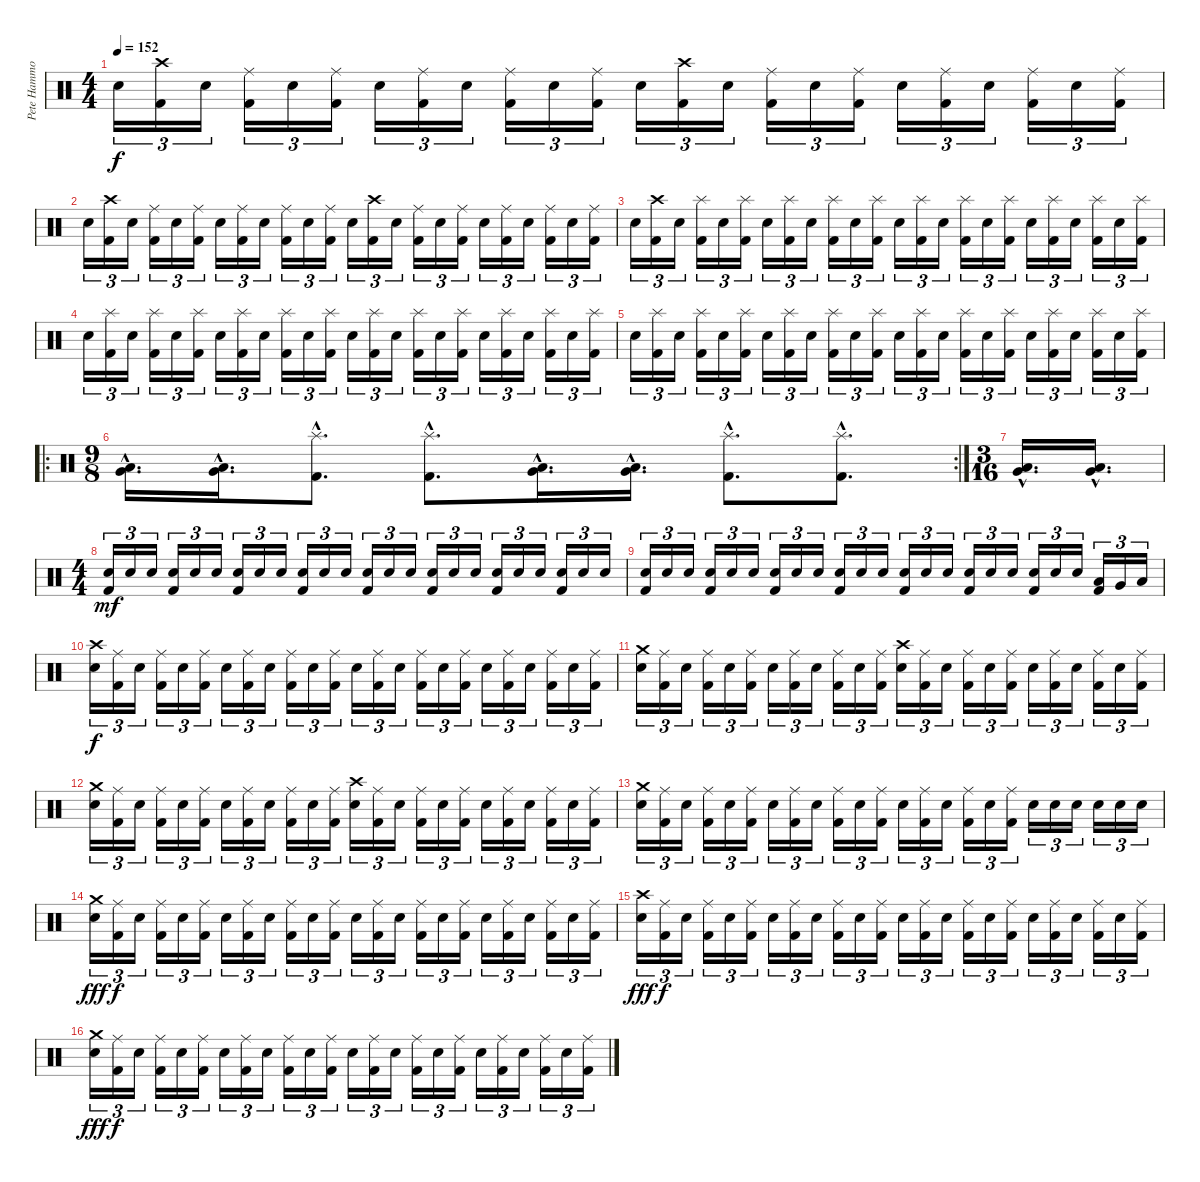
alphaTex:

\track ("Pete Hammoura" "Pete Hammo") {instrument percussion}
\staff {score}
\articulation defaults
\ts (4 4)
\tempo 152
\clef neutral
\ks c "Electric Snare (hit)".16{tu (3 2) dy f}
("Crash high (hit)" "Kick (hit) 2").16{tu (3 2)} "Electric Snare (hit)".16{tu (3 2)} ("Ride (middle)" "Kick (hit) 2").16{tu (3 2)} "Electric Snare (hit)".16{tu (3 2)} ("Ride (middle)" "Kick (hit) 2").16{tu (3 2)} "Electric Snare (hit)".16{tu (3 2)} ("Ride (middle)" "Kick (hit) 2").16{tu (3 2)} "Electric Snare (hit)".16{tu (3 2)} ("Ride (middle)" "Kick (hit) 2").16{tu (3 2)} "Electric Snare (hit)".16{tu (3 2)} ("Ride (middle)" "Kick (hit) 2").16{tu (3 2)} "Electric Snare (hit)".16{tu (3 2)} ("Crash high (hit)" "Kick (hit) 2").16{tu (3 2)} "Electric Snare (hit)".16{tu (3 2)} ("Ride (middle)" "Kick (hit) 2").16{tu (3 2)} "Electric Snare (hit)".16{tu (3 2)} ("Ride (middle)" "Kick (hit) 2").16{tu (3 2)} "Electric Snare (hit)".16{tu (3 2)} ("Ride (middle)" "Kick (hit) 2").16{tu (3 2)} "Electric Snare (hit)".16{tu (3 2)} ("Ride (middle)" "Kick (hit) 2").16{tu (3 2)} "Electric Snare (hit)".16{tu (3 2)} ("Ride (middle)" "Kick (hit) 2").16{tu (3 2)} |
"Electric Snare (hit)".16{tu (3 2)} ("Crash high (hit)" "Kick (hit) 2").16{tu (3 2)} "Electric Snare (hit)".16{tu (3 2)} ("Ride (middle)" "Kick (hit) 2").16{tu (3 2)} "Electric Snare (hit)".16{tu (3 2)} ("Ride (middle)" "Kick (hit) 2").16{tu (3 2)} "Electric Snare (hit)".16{tu (3 2)} ("Ride (middle)" "Kick (hit) 2").16{tu (3 2)} "Electric Snare (hit)".16{tu (3 2)} ("Ride (middle)" "Kick (hit) 2").16{tu (3 2)} "Electric Snare (hit)".16{tu (3 2)} ("Ride (middle)" "Kick (hit) 2").16{tu (3 2)} "Electric Snare (hit)".16{tu (3 2)} ("Crash high (hit)" "Kick (hit) 2").16{tu (3 2)} "Electric Snare (hit)".16{tu (3 2)} ("Ride (middle)" "Kick (hit) 2").16{tu (3 2)} "Electric Snare (hit)".16{tu (3 2)} ("Ride (middle)" "Kick (hit) 2").16{tu (3 2)} "Electric Snare (hit)".16{tu (3 2)} ("Ride (middle)" "Kick (hit) 2").16{tu (3 2)} "Electric Snare (hit)".16{tu (3 2)} ("Ride (middle)" "Kick (hit) 2").16{tu (3 2)} "Electric Snare (hit)".16{tu (3 2)} ("Ride (middle)" "Kick (hit) 2").16{tu (3 2)} |
"Electric Snare (hit)".16{tu (3 2)} ("Crash high (hit)" "Kick (hit) 2").16{tu (3 2)} "Electric Snare (hit)".16{tu (3 2)} ("Splash (hit)" "Kick (hit) 2").16{tu (3 2)} "Electric Snare (hit)".16{tu (3 2)} ("Splash (hit)" "Kick (hit) 2").16{tu (3 2)} "Electric Snare (hit)".16{tu (3 2)} ("Splash (hit)" "Kick (hit) 2").16{tu (3 2)} "Electric Snare (hit)".16{tu (3 2)} ("Splash (hit)" "Kick (hit) 2").16{tu (3 2)} "Electric Snare (hit)".16{tu (3 2)} ("Splash (hit)" "Kick (hit) 2").16{tu (3 2)} "Electric Snare (hit)".16{tu (3 2)} ("Splash (hit)" "Kick (hit) 2").16{tu (3 2)} "Electric Snare (hit)".16{tu (3 2)} ("Splash (hit)" "Kick (hit) 2").16{tu (3 2)} "Electric Snare (hit)".16{tu (3 2)} ("Splash (hit)" "Kick (hit) 2").16{tu (3 2)} "Electric Snare (hit)".16{tu (3 2)} ("Splash (hit)" "Kick (hit) 2").16{tu (3 2)} "Electric Snare (hit)".16{tu (3 2)} ("Splash (hit)" "Kick (hit) 2").16{tu (3 2)} "Electric Snare (hit)".16{tu (3 2)} ("Splash (hit)" "Kick (hit) 2").16{tu (3 2)} |
"Electric Snare (hit)".16{tu (3 2)} ("Splash (hit)" "Kick (hit) 2").16{tu (3 2)} "Electric Snare (hit)".16{tu (3 2)} ("Splash (hit)" "Kick (hit) 2").16{tu (3 2)} "Electric Snare (hit)".16{tu (3 2)} ("Splash (hit)" "Kick (hit) 2").16{tu (3 2)} "Electric Snare (hit)".16{tu (3 2)} ("Splash (hit)" "Kick (hit) 2").16{tu (3 2)} "Electric Snare (hit)".16{tu (3 2)} ("Splash (hit)" "Kick (hit) 2").16{tu (3 2)} "Electric Snare (hit)".16{tu (3 2)} ("Splash (hit)" "Kick (hit) 2").16{tu (3 2)} "Electric Snare (hit)".16{tu (3 2)} ("Splash (hit)" "Kick (hit) 2").16{tu (3 2)} "Electric Snare (hit)".16{tu (3 2)} ("Splash (hit)" "Kick (hit) 2").16{tu (3 2)} "Electric Snare (hit)".16{tu (3 2)} ("Splash (hit)" "Kick (hit) 2").16{tu (3 2)} "Electric Snare (hit)".16{tu (3 2)} ("Splash (hit)" "Kick (hit) 2").16{tu (3 2)} "Electric Snare (hit)".16{tu (3 2)} ("Splash (hit)" "Kick (hit) 2").16{tu (3 2)} "Electric Snare (hit)".16{tu (3 2)} ("Splash (hit)" "Kick (hit) 2").16{tu (3 2)} |
"Electric Snare (hit)".16{tu (3 2)} ("Splash (hit)" "Kick (hit) 2").16{tu (3 2)} "Electric Snare (hit)".16{tu (3 2)} ("Splash (hit)" "Kick (hit) 2").16{tu (3 2)} "Electric Snare (hit)".16{tu (3 2)} ("Splash (hit)" "Kick (hit) 2").16{tu (3 2)} "Electric Snare (hit)".16{tu (3 2)} ("Splash (hit)" "Kick (hit) 2").16{tu (3 2)} "Electric Snare (hit)".16{tu (3 2)} ("Splash (hit)" "Kick (hit) 2").16{tu (3 2)} "Electric Snare (hit)".16{tu (3 2)} ("Splash (hit)" "Kick (hit) 2").16{tu (3 2)} "Electric Snare (hit)".16{tu (3 2)} ("Splash (hit)" "Kick (hit) 2").16{tu (3 2)} "Electric Snare (hit)".16{tu (3 2)} ("Splash (hit)" "Kick (hit) 2").16{tu (3 2)} "Electric Snare (hit)".16{tu (3 2)} ("Splash (hit)" "Kick (hit) 2").16{tu (3 2)} "Electric Snare (hit)".16{tu (3 2)} ("Splash (hit)" "Kick (hit) 2").16{tu (3 2)} "Electric Snare (hit)".16{tu (3 2)} ("Splash (hit)" "Kick (hit) 2").16{tu (3 2)} "Electric Snare (hit)".16{tu (3 2)} ("Splash (hit)" "Kick (hit) 2").16{tu (3 2)} |
\ro
\rc 2
\ts (9 8)
("Very Low Tom (hit)"{hac} "Low Tom (hit)"{hac}).16{d} ("Very Low Tom (hit)"{hac} "Low Tom (hit)"{hac}).16{d} ("Splash (hit)"{hac} "Kick (hit) 2"{hac}).8{d} ("Splash (hit)"{hac} "Kick (hit) 2"{hac}).8{d} ("Very Low Tom (hit)"{hac} "Low Tom (hit)"{hac}).16{d} ("Very Low Tom (hit)"{hac} "Low Tom (hit)"{hac}).16{d} ("Splash (hit)"{hac} "Kick (hit) 2"{hac}).8{d} ("Splash (hit)"{hac} "Kick (hit) 2"{hac}).8{d} |
\ts (3 16)
("Very Low Tom (hit)"{hac} "Low Tom (hit)"{hac}).16{d} ("Very Low Tom (hit)"{hac} "Low Tom (hit)"{hac}).16{d} |
\ts (4 4)
("Electric Snare (hit)" "Kick (hit) 2").16{tu (3 2) dy mf} "Electric Snare (hit)".16{tu (3 2)} "Electric Snare (hit)".16{tu (3 2)} ("Electric Snare (hit)" "Kick (hit) 2").16{tu (3 2)} "Electric Snare (hit)".16{tu (3 2)} "Electric Snare (hit)".16{tu (3 2)} ("Electric Snare (hit)" "Kick (hit) 2").16{tu (3 2)} "Electric Snare (hit)".16{tu (3 2)} "Electric Snare (hit)".16{tu (3 2)} ("Electric Snare (hit)" "Kick (hit) 2").16{tu (3 2)} "Electric Snare (hit)".16{tu (3 2)} "Electric Snare (hit)".16{tu (3 2)} ("Electric Snare (hit)" "Kick (hit) 2").16{tu (3 2)} "Electric Snare (hit)".16{tu (3 2)} "Electric Snare (hit)".16{tu (3 2)} ("Electric Snare (hit)" "Kick (hit) 2").16{tu (3 2)} "Electric Snare (hit)".16{tu (3 2)} "Electric Snare (hit)".16{tu (3 2)} ("Electric Snare (hit)" "Kick (hit) 2").16{tu (3 2)} "Electric Snare (hit)".16{tu (3 2)} "Electric Snare (hit)".16{tu (3 2)} ("Electric Snare (hit)" "Kick (hit) 2").16{tu (3 2)} "Electric Snare (hit)".16{tu (3 2)} "Electric Snare (hit)".16{tu (3 2)} |
("Electric Snare (hit)" "Kick (hit) 2").16{tu (3 2)} "Electric Snare (hit)".16{tu (3 2)} "Electric Snare (hit)".16{tu (3 2)} ("Electric Snare (hit)" "Kick (hit) 2").16{tu (3 2)} "Electric Snare (hit)".16{tu (3 2)} "Electric Snare (hit)".16{tu (3 2)} ("Electric Snare (hit)" "Kick (hit) 2").16{tu (3 2)} "Electric Snare (hit)".16{tu (3 2)} "Electric Snare (hit)".16{tu (3 2)} ("Electric Snare (hit)" "Kick (hit) 2").16{tu (3 2)} "Electric Snare (hit)".16{tu (3 2)} "Electric Snare (hit)".16{tu (3 2)} ("Electric Snare (hit)" "Kick (hit) 2").16{tu (3 2)} "Electric Snare (hit)".16{tu (3 2)} "Electric Snare (hit)".16{tu (3 2)} ("Electric Snare (hit)" "Kick (hit) 2").16{tu (3 2)} "Electric Snare (hit)".16{tu (3 2)} "Electric Snare (hit)".16{tu (3 2)} ("Electric Snare (hit)" "Kick (hit) 2").16{tu (3 2)} "Electric Snare (hit)".16{tu (3 2)} "Electric Snare (hit)".16{tu (3 2)} ("Low Tom (hit)" "Kick (hit) 2").16{tu (3 2)} "Very Low Tom (hit)".16{tu (3 2)} "Low Floor Tom (hit)".16{tu (3 2)} |
("Crash high (hit)" "Electric Snare (hit)").16{tu (3 2) dy f} ("Ride (middle)" "Kick (hit) 2").16{tu (3 2)} "Electric Snare (hit)".16{tu (3 2)} ("Ride (middle)" "Kick (hit) 2").16{tu (3 2)} "Electric Snare (hit)".16{tu (3 2)} ("Ride (middle)" "Kick (hit) 2").16{tu (3 2)} "Electric Snare (hit)".16{tu (3 2)} ("Ride (middle)" "Kick (hit) 2").16{tu (3 2)} "Electric Snare (hit)".16{tu (3 2)} ("Ride (middle)" "Kick (hit) 2").16{tu (3 2)} "Electric Snare (hit)".16{tu (3 2)} ("Ride (middle)" "Kick (hit) 2").16{tu (3 2)} "Electric Snare (hit)".16{tu (3 2)} ("Ride (middle)" "Kick (hit) 2").16{tu (3 2)} "Electric Snare (hit)".16{tu (3 2)} ("Ride (middle)" "Kick (hit) 2").16{tu (3 2)} "Electric Snare (hit)".16{tu (3 2)} ("Ride (middle)" "Kick (hit) 2").16{tu (3 2)} "Electric Snare (hit)".16{tu (3 2)} ("Ride (middle)" "Kick (hit) 2").16{tu (3 2)} "Electric Snare (hit)".16{tu (3 2)} ("Ride (middle)" "Kick (hit) 2").16{tu (3 2)} "Electric Snare (hit)".16{tu (3 2)} ("Ride (middle)" "Kick (hit) 2").16{tu (3 2)} |
("Crash medium (hit)" "Electric Snare (hit)").16{tu (3 2)} ("Ride (middle)" "Kick (hit) 2").16{tu (3 2)} "Electric Snare (hit)".16{tu (3 2)} ("Ride (middle)" "Kick (hit) 2").16{tu (3 2)} "Electric Snare (hit)".16{tu (3 2)} ("Ride (middle)" "Kick (hit) 2").16{tu (3 2)} "Electric Snare (hit)".16{tu (3 2)} ("Ride (middle)" "Kick (hit) 2").16{tu (3 2)} "Electric Snare (hit)".16{tu (3 2)} ("Ride (middle)" "Kick (hit) 2").16{tu (3 2)} "Electric Snare (hit)".16{tu (3 2)} ("Ride (middle)" "Kick (hit) 2").16{tu (3 2)} ("Crash high (hit)" "Electric Snare (hit)").16{tu (3 2)} ("Ride (middle)" "Kick (hit) 2").16{tu (3 2)} "Electric Snare (hit)".16{tu (3 2)} ("Ride (middle)" "Kick (hit) 2").16{tu (3 2)} "Electric Snare (hit)".16{tu (3 2)} ("Ride (middle)" "Kick (hit) 2").16{tu (3 2)} "Electric Snare (hit)".16{tu (3 2)} ("Ride (middle)" "Kick (hit) 2").16{tu (3 2)} "Electric Snare (hit)".16{tu (3 2)} ("Ride (middle)" "Kick (hit) 2").16{tu (3 2)} "Electric Snare (hit)".16{tu (3 2)} ("Ride (middle)" "Kick (hit) 2").16{tu (3 2)} |
("Crash medium (hit)" "Electric Snare (hit)").16{tu (3 2)} ("Ride (middle)" "Kick (hit) 2").16{tu (3 2)} "Electric Snare (hit)".16{tu (3 2)} ("Ride (middle)" "Kick (hit) 2").16{tu (3 2)} "Electric Snare (hit)".16{tu (3 2)} ("Ride (middle)" "Kick (hit) 2").16{tu (3 2)} "Electric Snare (hit)".16{tu (3 2)} ("Ride (middle)" "Kick (hit) 2").16{tu (3 2)} "Electric Snare (hit)".16{tu (3 2)} ("Ride (middle)" "Kick (hit) 2").16{tu (3 2)} "Electric Snare (hit)".16{tu (3 2)} ("Ride (middle)" "Kick (hit) 2").16{tu (3 2)} ("Crash high (hit)" "Electric Snare (hit)").16{tu (3 2)} ("Ride (middle)" "Kick (hit) 2").16{tu (3 2)} "Electric Snare (hit)".16{tu (3 2)} ("Ride (middle)" "Kick (hit) 2").16{tu (3 2)} "Electric Snare (hit)".16{tu (3 2)} ("Ride (middle)" "Kick (hit) 2").16{tu (3 2)} "Electric Snare (hit)".16{tu (3 2)} ("Ride (middle)" "Kick (hit) 2").16{tu (3 2)} "Electric Snare (hit)".16{tu (3 2)} ("Ride (middle)" "Kick (hit) 2").16{tu (3 2)} "Electric Snare (hit)".16{tu (3 2)} ("Ride (middle)" "Kick (hit) 2").16{tu (3 2)} |
("Crash medium (hit)" "Electric Snare (hit)").16{tu (3 2)} ("Ride (middle)" "Kick (hit) 2").16{tu (3 2)} "Electric Snare (hit)".16{tu (3 2)} ("Ride (middle)" "Kick (hit) 2").16{tu (3 2)} "Electric Snare (hit)".16{tu (3 2)} ("Ride (middle)" "Kick (hit) 2").16{tu (3 2)} "Electric Snare (hit)".16{tu (3 2)} ("Ride (middle)" "Kick (hit) 2").16{tu (3 2)} "Electric Snare (hit)".16{tu (3 2)} ("Ride (middle)" "Kick (hit) 2").16{tu (3 2)} "Electric Snare (hit)".16{tu (3 2)} ("Ride (middle)" "Kick (hit) 2").16{tu (3 2)} "Electric Snare (hit)".16{tu (3 2)} ("Ride (middle)" "Kick (hit) 2").16{tu (3 2)} "Electric Snare (hit)".16{tu (3 2)} ("Ride (middle)" "Kick (hit) 2").16{tu (3 2)} "Electric Snare (hit)".16{tu (3 2)} ("Ride (middle)" "Kick (hit) 2").16{tu (3 2)} "Electric Snare (hit)".16{tu (3 2)} "Electric Snare (hit)".16{tu (3 2)} "Electric Snare (hit)".16{tu (3 2)} "Electric Snare (hit)".16{tu (3 2)} "Electric Snare (hit)".16{tu (3 2)} "Electric Snare (hit)".16{tu (3 2)} |
("Crash medium (hit)" "Electric Snare (hit)").16{tu (3 2) dy fff} ("Ride (middle)" "Kick (hit) 2").16{tu (3 2) dy f} "Electric Snare (hit)".16{tu (3 2)} ("Ride (middle)" "Kick (hit) 2").16{tu (3 2)} "Electric Snare (hit)".16{tu (3 2)} ("Ride (middle)" "Kick (hit) 2").16{tu (3 2)} "Electric Snare (hit)".16{tu (3 2)} ("Ride (middle)" "Kick (hit) 2").16{tu (3 2)} "Electric Snare (hit)".16{tu (3 2)} ("Ride (middle)" "Kick (hit) 2").16{tu (3 2)} "Electric Snare (hit)".16{tu (3 2)} ("Ride (middle)" "Kick (hit) 2").16{tu (3 2)} "Electric Snare (hit)".16{tu (3 2)} ("Ride (middle)" "Kick (hit) 2").16{tu (3 2)} "Electric Snare (hit)".16{tu (3 2)} ("Ride (middle)" "Kick (hit) 2").16{tu (3 2)} "Electric Snare (hit)".16{tu (3 2)} ("Ride (middle)" "Kick (hit) 2").16{tu (3 2)} "Electric Snare (hit)".16{tu (3 2)} ("Ride (middle)" "Kick (hit) 2").16{tu (3 2)} "Electric Snare (hit)".16{tu (3 2)} ("Ride (middle)" "Kick (hit) 2").16{tu (3 2)} "Electric Snare (hit)".16{tu (3 2)} ("Ride (middle)" "Kick (hit) 2").16{tu (3 2)} |
("Crash high (hit)" "Electric Snare (hit)").16{tu (3 2) dy fff} ("Ride (middle)" "Kick (hit) 2").16{tu (3 2) dy f} "Electric Snare (hit)".16{tu (3 2)} ("Ride (middle)" "Kick (hit) 2").16{tu (3 2)} "Electric Snare (hit)".16{tu (3 2)} ("Ride (middle)" "Kick (hit) 2").16{tu (3 2)} "Electric Snare (hit)".16{tu (3 2)} ("Ride (middle)" "Kick (hit) 2").16{tu (3 2)} "Electric Snare (hit)".16{tu (3 2)} ("Ride (middle)" "Kick (hit) 2").16{tu (3 2)} "Electric Snare (hit)".16{tu (3 2)} ("Ride (middle)" "Kick (hit) 2").16{tu (3 2)} "Electric Snare (hit)".16{tu (3 2)} ("Ride (middle)" "Kick (hit) 2").16{tu (3 2)} "Electric Snare (hit)".16{tu (3 2)} ("Ride (middle)" "Kick (hit) 2").16{tu (3 2)} "Electric Snare (hit)".16{tu (3 2)} ("Ride (middle)" "Kick (hit) 2").16{tu (3 2)} "Electric Snare (hit)".16{tu (3 2)} ("Ride (middle)" "Kick (hit) 2").16{tu (3 2)} "Electric Snare (hit)".16{tu (3 2)} ("Ride (middle)" "Kick (hit) 2").16{tu (3 2)} "Electric Snare (hit)".16{tu (3 2)} ("Ride (middle)" "Kick (hit) 2").16{tu (3 2)} |
("Crash medium (hit)" "Electric Snare (hit)").16{tu (3 2) dy fff} ("Ride (middle)" "Kick (hit) 2").16{tu (3 2) dy f} "Electric Snare (hit)".16{tu (3 2)} ("Ride (middle)" "Kick (hit) 2").16{tu (3 2)} "Electric Snare (hit)".16{tu (3 2)} ("Ride (middle)" "Kick (hit) 2").16{tu (3 2)} "Electric Snare (hit)".16{tu (3 2)} ("Ride (middle)" "Kick (hit) 2").16{tu (3 2)} "Electric Snare (hit)".16{tu (3 2)} ("Ride (middle)" "Kick (hit) 2").16{tu (3 2)} "Electric Snare (hit)".16{tu (3 2)} ("Ride (middle)" "Kick (hit) 2").16{tu (3 2)} "Electric Snare (hit)".16{tu (3 2)} ("Ride (middle)" "Kick (hit) 2").16{tu (3 2)} "Electric Snare (hit)".16{tu (3 2)} ("Ride (middle)" "Kick (hit) 2").16{tu (3 2)} "Electric Snare (hit)".16{tu (3 2)} ("Ride (middle)" "Kick (hit) 2").16{tu (3 2)} "Electric Snare (hit)".16{tu (3 2)} ("Ride (middle)" "Kick (hit) 2").16{tu (3 2)} "Electric Snare (hit)".16{tu (3 2)} ("Ride (middle)" "Kick (hit) 2").16{tu (3 2)} "Electric Snare (hit)".16{tu (3 2)} ("Ride (middle)" "Kick (hit) 2").16{tu (3 2)}
